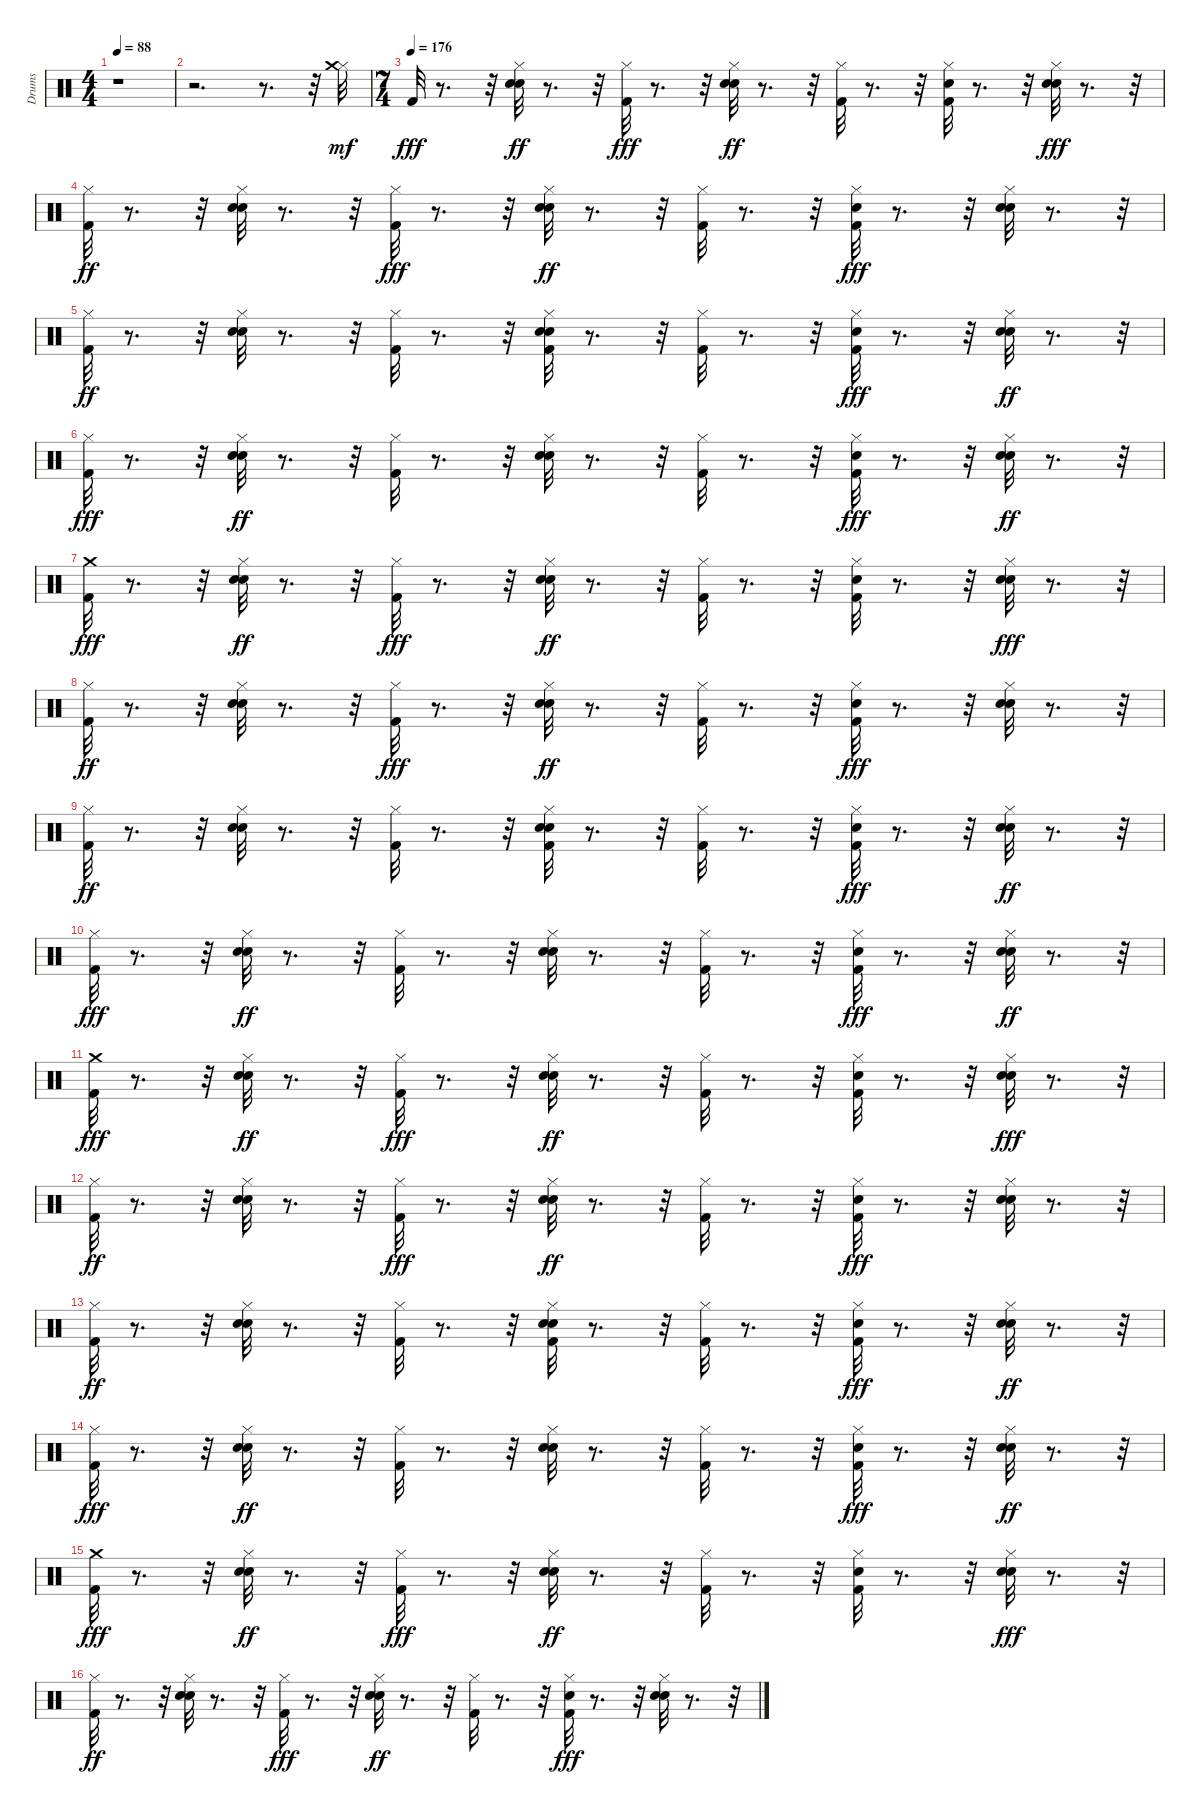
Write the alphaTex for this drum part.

\track ("Drums" "Drums") {instrument percussion}
\staff {score}
\articulation defaults
\ts (4 4)
\tempo 88
\clef neutral
\ks c
r.1{dy mf} |
r.2{d} r.8{d} r.32 ("Hi-Hat (closed)" "Crash medium (hit)").32 |
\ts (7 4)
\tempo (176)
"Kick (hit) 2".32{dy fff} r.8{d} r.32 ("Hand Clap (hit)" "Snare (hit) 2" "Hi-Hat (closed)").32{dy ff} r.8{d} r.32 ("Kick (hit) 2" "Hi-Hat (closed)").32{dy fff} r.8{d} r.32 ("Hand Clap (hit)" "Snare (hit) 2" "Hi-Hat (closed)").32{dy ff} r.8{d} r.32 ("Kick (hit) 2" "Hi-Hat (closed)").32 r.8{d} r.32 ("Hand Clap (hit)" "Kick (hit) 2" "Hi-Hat (closed)").32 r.8{d} r.32 ("Hand Clap (hit)" "Snare (hit) 2" "Hi-Hat (closed)").32{dy fff} r.8{d} r.32 |
("Kick (hit) 2" "Hi-Hat (closed)").32{dy ff} r.8{d} r.32 ("Hand Clap (hit)" "Snare (hit) 2" "Hi-Hat (closed)").32 r.8{d} r.32 ("Kick (hit) 2" "Hi-Hat (closed)").32{dy fff} r.8{d} r.32 ("Hand Clap (hit)" "Snare (hit) 2" "Hi-Hat (closed)").32{dy ff} r.8{d} r.32 ("Kick (hit) 2" "Hi-Hat (closed)").32 r.8{d} r.32 ("Hand Clap (hit)" "Kick (hit) 2" "Hi-Hat (closed)").32{dy fff} r.8{d} r.32 ("Hand Clap (hit)" "Snare (hit) 2" "Hi-Hat (closed)").32 r.8{d} r.32 |
("Kick (hit) 2" "Hi-Hat (closed)").32{dy ff} r.8{d} r.32 ("Hand Clap (hit)" "Snare (hit) 2" "Hi-Hat (closed)").32 r.8{d} r.32 ("Kick (hit) 2" "Hi-Hat (closed)").32 r.8{d} r.32 ("Hand Clap (hit)" "Snare (hit) 2" "Kick (hit) 2" "Hi-Hat (closed)").32 r.8{d} r.32 ("Kick (hit) 2" "Hi-Hat (closed)").32 r.8{d} r.32 ("Hand Clap (hit)" "Kick (hit) 2" "Hi-Hat (closed)").32{dy fff} r.8{d} r.32 ("Hand Clap (hit)" "Snare (hit) 2" "Hi-Hat (closed)").32{dy ff} r.8{d} r.32 |
("Kick (hit) 2" "Hi-Hat (closed)").32{dy fff} r.8{d} r.32 ("Hand Clap (hit)" "Snare (hit) 2" "Hi-Hat (closed)").32{dy ff} r.8{d} r.32 ("Kick (hit) 2" "Hi-Hat (closed)").32 r.8{d} r.32 ("Hand Clap (hit)" "Snare (hit) 2" "Hi-Hat (closed)").32 r.8{d} r.32 ("Kick (hit) 2" "Hi-Hat (closed)").32 r.8{d} r.32 ("Hand Clap (hit)" "Kick (hit) 2" "Hi-Hat (closed)").32{dy fff} r.8{d} r.32 ("Hand Clap (hit)" "Snare (hit) 2" "Hi-Hat (closed)").32{dy ff} r.8{d} r.32 |
("Crash medium (hit)" "Kick (hit) 2").32{dy fff} r.8{d} r.32 ("Hand Clap (hit)" "Snare (hit) 2" "Hi-Hat (closed)").32{dy ff} r.8{d} r.32 ("Kick (hit) 2" "Hi-Hat (closed)").32{dy fff} r.8{d} r.32 ("Hand Clap (hit)" "Snare (hit) 2" "Hi-Hat (closed)").32{dy ff} r.8{d} r.32 ("Kick (hit) 2" "Hi-Hat (closed)").32 r.8{d} r.32 ("Hand Clap (hit)" "Kick (hit) 2" "Hi-Hat (closed)").32 r.8{d} r.32 ("Hand Clap (hit)" "Snare (hit) 2" "Hi-Hat (closed)").32{dy fff} r.8{d} r.32 |
("Kick (hit) 2" "Hi-Hat (closed)").32{dy ff} r.8{d} r.32 ("Hand Clap (hit)" "Snare (hit) 2" "Hi-Hat (closed)").32 r.8{d} r.32 ("Kick (hit) 2" "Hi-Hat (closed)").32{dy fff} r.8{d} r.32 ("Hand Clap (hit)" "Snare (hit) 2" "Hi-Hat (closed)").32{dy ff} r.8{d} r.32 ("Kick (hit) 2" "Hi-Hat (closed)").32 r.8{d} r.32 ("Hand Clap (hit)" "Kick (hit) 2" "Hi-Hat (closed)").32{dy fff} r.8{d} r.32 ("Hand Clap (hit)" "Snare (hit) 2" "Hi-Hat (closed)").32 r.8{d} r.32 |
("Kick (hit) 2" "Hi-Hat (closed)").32{dy ff} r.8{d} r.32 ("Hand Clap (hit)" "Snare (hit) 2" "Hi-Hat (closed)").32 r.8{d} r.32 ("Kick (hit) 2" "Hi-Hat (closed)").32 r.8{d} r.32 ("Hand Clap (hit)" "Snare (hit) 2" "Kick (hit) 2" "Hi-Hat (closed)").32 r.8{d} r.32 ("Kick (hit) 2" "Hi-Hat (closed)").32 r.8{d} r.32 ("Hand Clap (hit)" "Kick (hit) 2" "Hi-Hat (closed)").32{dy fff} r.8{d} r.32 ("Hand Clap (hit)" "Snare (hit) 2" "Hi-Hat (closed)").32{dy ff} r.8{d} r.32 |
("Kick (hit) 2" "Hi-Hat (closed)").32{dy fff} r.8{d} r.32 ("Hand Clap (hit)" "Snare (hit) 2" "Hi-Hat (closed)").32{dy ff} r.8{d} r.32 ("Kick (hit) 2" "Hi-Hat (closed)").32 r.8{d} r.32 ("Hand Clap (hit)" "Snare (hit) 2" "Hi-Hat (closed)").32 r.8{d} r.32 ("Kick (hit) 2" "Hi-Hat (closed)").32 r.8{d} r.32 ("Hand Clap (hit)" "Kick (hit) 2" "Hi-Hat (closed)").32{dy fff} r.8{d} r.32 ("Hand Clap (hit)" "Snare (hit) 2" "Hi-Hat (closed)").32{dy ff} r.8{d} r.32 |
("Crash medium (hit)" "Kick (hit) 2").32{dy fff} r.8{d} r.32 ("Hand Clap (hit)" "Snare (hit) 2" "Hi-Hat (closed)").32{dy ff} r.8{d} r.32 ("Kick (hit) 2" "Hi-Hat (closed)").32{dy fff} r.8{d} r.32 ("Hand Clap (hit)" "Snare (hit) 2" "Hi-Hat (closed)").32{dy ff} r.8{d} r.32 ("Kick (hit) 2" "Hi-Hat (closed)").32 r.8{d} r.32 ("Hand Clap (hit)" "Kick (hit) 2" "Hi-Hat (closed)").32 r.8{d} r.32 ("Hand Clap (hit)" "Snare (hit) 2" "Hi-Hat (closed)").32{dy fff} r.8{d} r.32 |
("Kick (hit) 2" "Hi-Hat (closed)").32{dy ff} r.8{d} r.32 ("Hand Clap (hit)" "Snare (hit) 2" "Hi-Hat (closed)").32 r.8{d} r.32 ("Kick (hit) 2" "Hi-Hat (closed)").32{dy fff} r.8{d} r.32 ("Hand Clap (hit)" "Snare (hit) 2" "Hi-Hat (closed)").32{dy ff} r.8{d} r.32 ("Kick (hit) 2" "Hi-Hat (closed)").32 r.8{d} r.32 ("Hand Clap (hit)" "Kick (hit) 2" "Hi-Hat (closed)").32{dy fff} r.8{d} r.32 ("Hand Clap (hit)" "Snare (hit) 2" "Hi-Hat (closed)").32 r.8{d} r.32 |
("Kick (hit) 2" "Hi-Hat (closed)").32{dy ff} r.8{d} r.32 ("Hand Clap (hit)" "Snare (hit) 2" "Hi-Hat (closed)").32 r.8{d} r.32 ("Kick (hit) 2" "Hi-Hat (closed)").32 r.8{d} r.32 ("Hand Clap (hit)" "Snare (hit) 2" "Kick (hit) 2" "Hi-Hat (closed)").32 r.8{d} r.32 ("Kick (hit) 2" "Hi-Hat (closed)").32 r.8{d} r.32 ("Hand Clap (hit)" "Kick (hit) 2" "Hi-Hat (closed)").32{dy fff} r.8{d} r.32 ("Hand Clap (hit)" "Snare (hit) 2" "Hi-Hat (closed)").32{dy ff} r.8{d} r.32 |
("Kick (hit) 2" "Hi-Hat (closed)").32{dy fff} r.8{d} r.32 ("Hand Clap (hit)" "Snare (hit) 2" "Hi-Hat (closed)").32{dy ff} r.8{d} r.32 ("Kick (hit) 2" "Hi-Hat (closed)").32 r.8{d} r.32 ("Hand Clap (hit)" "Snare (hit) 2" "Hi-Hat (closed)").32 r.8{d} r.32 ("Kick (hit) 2" "Hi-Hat (closed)").32 r.8{d} r.32 ("Hand Clap (hit)" "Kick (hit) 2" "Hi-Hat (closed)").32{dy fff} r.8{d} r.32 ("Hand Clap (hit)" "Snare (hit) 2" "Hi-Hat (closed)").32{dy ff} r.8{d} r.32 |
("Crash medium (hit)" "Kick (hit) 2").32{dy fff} r.8{d} r.32 ("Hand Clap (hit)" "Snare (hit) 2" "Hi-Hat (closed)").32{dy ff} r.8{d} r.32 ("Kick (hit) 2" "Hi-Hat (closed)").32{dy fff} r.8{d} r.32 ("Hand Clap (hit)" "Snare (hit) 2" "Hi-Hat (closed)").32{dy ff} r.8{d} r.32 ("Kick (hit) 2" "Hi-Hat (closed)").32 r.8{d} r.32 ("Hand Clap (hit)" "Kick (hit) 2" "Hi-Hat (closed)").32 r.8{d} r.32 ("Hand Clap (hit)" "Snare (hit) 2" "Hi-Hat (closed)").32{dy fff} r.8{d} r.32 |
("Kick (hit) 2" "Hi-Hat (closed)").32{dy ff} r.8{d} r.32 ("Hand Clap (hit)" "Snare (hit) 2" "Hi-Hat (closed)").32 r.8{d} r.32 ("Kick (hit) 2" "Hi-Hat (closed)").32{dy fff} r.8{d} r.32 ("Hand Clap (hit)" "Snare (hit) 2" "Hi-Hat (closed)").32{dy ff} r.8{d} r.32 ("Kick (hit) 2" "Hi-Hat (closed)").32 r.8{d} r.32 ("Hand Clap (hit)" "Kick (hit) 2" "Hi-Hat (closed)").32{dy fff} r.8{d} r.32 ("Hand Clap (hit)" "Snare (hit) 2" "Hi-Hat (closed)").32 r.8{d} r.32
